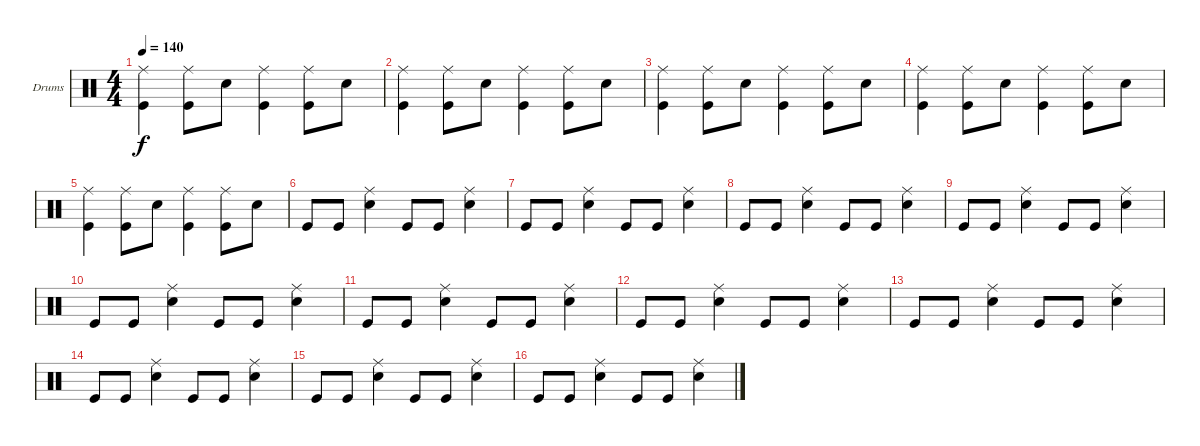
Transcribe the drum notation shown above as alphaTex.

\bracketExtendMode groupsimilarinstruments
\firstSystemTrackNameOrientation horizontal
\otherSystemsTrackNameOrientation horizontal
\track ("Ryan Seamen" "Drums") {instrument percussion}
\staff {score}
\articulation defaults
\ts (4 4)
\tempo 140
\clef neutral
\ks c
("Ride (middle)" "Kick (hit)").4{dy f} ("Ride (middle)" "Kick (hit)").8 "Snare (hit) 2".8 ("Ride (middle)" "Kick (hit)").4 ("Ride (middle)" "Kick (hit)").8 "Snare (hit) 2".8 |
("Ride (middle)" "Kick (hit)").4 ("Ride (middle)" "Kick (hit)").8 "Snare (hit) 2".8 ("Ride (middle)" "Kick (hit)").4 ("Ride (middle)" "Kick (hit)").8 "Snare (hit) 2".8 |
("Ride (middle)" "Kick (hit)").4 ("Ride (middle)" "Kick (hit)").8 "Snare (hit) 2".8 ("Ride (middle)" "Kick (hit)").4 ("Ride (middle)" "Kick (hit)").8 "Snare (hit) 2".8 |
("Ride (middle)" "Kick (hit)").4 ("Ride (middle)" "Kick (hit)").8 "Snare (hit) 2".8 ("Ride (middle)" "Kick (hit)").4 ("Ride (middle)" "Kick (hit)").8 "Snare (hit) 2".8 |
("Ride (middle)" "Kick (hit)").4 ("Ride (middle)" "Kick (hit)").8 "Snare (hit) 2".8 ("Ride (middle)" "Kick (hit)").4 ("Ride (middle)" "Kick (hit)").8 "Snare (hit) 2".8 |
"Kick (hit)".8 "Kick (hit)".8 ("Ride (middle)" "Snare (hit) 2").4 "Kick (hit)".8 "Kick (hit)".8 ("Ride (middle)" "Snare (hit) 2").4 |
"Kick (hit)".8 "Kick (hit)".8 ("Ride (middle)" "Snare (hit) 2").4 "Kick (hit)".8 "Kick (hit)".8 ("Ride (middle)" "Snare (hit) 2").4 |
"Kick (hit)".8 "Kick (hit)".8 ("Ride (middle)" "Snare (hit) 2").4 "Kick (hit)".8 "Kick (hit)".8 ("Ride (middle)" "Snare (hit) 2").4 |
"Kick (hit)".8 "Kick (hit)".8 ("Ride (middle)" "Snare (hit) 2").4 "Kick (hit)".8 "Kick (hit)".8 ("Ride (middle)" "Snare (hit) 2").4 |
"Kick (hit)".8 "Kick (hit)".8 ("Ride (middle)" "Snare (hit) 2").4 "Kick (hit)".8 "Kick (hit)".8 ("Ride (middle)" "Snare (hit) 2").4 |
"Kick (hit)".8 "Kick (hit)".8 ("Ride (middle)" "Snare (hit) 2").4 "Kick (hit)".8 "Kick (hit)".8 ("Ride (middle)" "Snare (hit) 2").4 |
"Kick (hit)".8 "Kick (hit)".8 ("Ride (middle)" "Snare (hit) 2").4 "Kick (hit)".8 "Kick (hit)".8 ("Ride (middle)" "Snare (hit) 2").4 |
"Kick (hit)".8 "Kick (hit)".8 ("Ride (middle)" "Snare (hit) 2").4 "Kick (hit)".8 "Kick (hit)".8 ("Ride (middle)" "Snare (hit) 2").4 |
"Kick (hit)".8 "Kick (hit)".8 ("Ride (middle)" "Snare (hit) 2").4 "Kick (hit)".8 "Kick (hit)".8 ("Ride (middle)" "Snare (hit) 2").4 |
"Kick (hit)".8 "Kick (hit)".8 ("Ride (middle)" "Snare (hit) 2").4 "Kick (hit)".8 "Kick (hit)".8 ("Ride (middle)" "Snare (hit) 2").4 |
"Kick (hit)".8 "Kick (hit)".8 ("Ride (middle)" "Snare (hit) 2").4 "Kick (hit)".8 "Kick (hit)".8 ("Ride (middle)" "Snare (hit) 2").4
